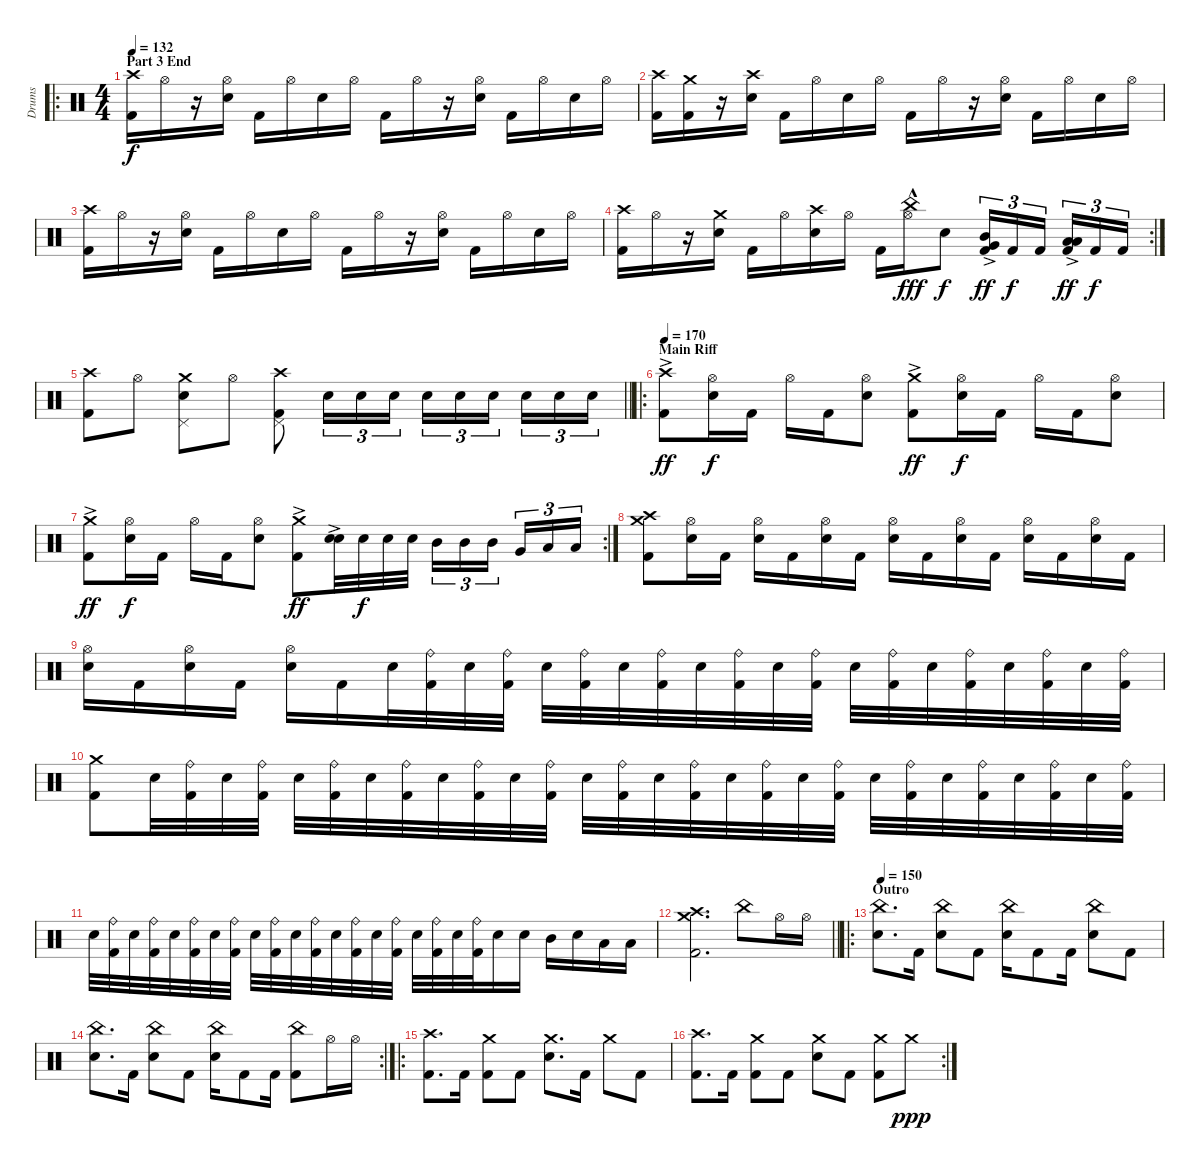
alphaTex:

\track ("Drums" "Drums") {instrument percussion}
\staff {score}
\articulation defaults
\ro
\ts (4 4)
\section ("" "Part 3 End")
\tempo 132
\clef neutral
\ks c
("Crash high (hit)" "Kick (hit) 2").16{dy f} "Hi-Hat (open)".16 r.16 ("Hi-Hat (open)" "Electric Snare (hit)").16 "Kick (hit) 2".16 "Hi-Hat (open)".16 "Electric Snare (hit)".16 "Hi-Hat (open)".16 "Kick (hit) 2".16 "Hi-Hat (open)".16 r.16 ("Hi-Hat (open)" "Electric Snare (hit)").16 "Kick (hit) 2".16 "Hi-Hat (open)".16 "Electric Snare (hit)".16 "Hi-Hat (open)".16 |
("Crash high (hit)" "Kick (hit) 2").16 ("Crash medium (hit)" "Kick (hit) 2").16 r.16 ("Crash high (hit)" "Electric Snare (hit)").16 "Kick (hit) 2".16 "Hi-Hat (open)".16 "Electric Snare (hit)".16 "Hi-Hat (open)".16 "Kick (hit) 2".16 "Hi-Hat (open)".16 r.16 ("Hi-Hat (open)" "Electric Snare (hit)").16 "Kick (hit) 2".16 "Hi-Hat (open)".16 "Electric Snare (hit)".16 "Hi-Hat (open)".16 |
("Crash high (hit)" "Kick (hit) 2").16 "Hi-Hat (open)".16 r.16 ("Hi-Hat (open)" "Electric Snare (hit)").16 "Kick (hit) 2".16 "Hi-Hat (open)".16 "Electric Snare (hit)".16 "Hi-Hat (open)".16 "Kick (hit) 2".16 "Hi-Hat (open)".16 r.16 ("Hi-Hat (open)" "Electric Snare (hit)").16 "Kick (hit) 2".16 "Hi-Hat (open)".16 "Electric Snare (hit)".16 "Hi-Hat (open)".16 |
\rc 2
("Crash high (hit)" "Kick (hit) 2").16 "Hi-Hat (open)".16 r.16 ("Crash medium (hit)" "Electric Snare (hit)").16 "Kick (hit) 2".16 "Hi-Hat (open)".16 ("Crash high (hit)" "Electric Snare (hit)").16 "Hi-Hat (open)".16 "Kick (hit) 2".16 ("China (hit)"{hac} "Hi-Hat (open)").16{dy fff} "Electric Snare (hit)".8{dy f} ("Mid Tom (hit)"{ac} "Very Low Tom (hit)"{ac} "Kick (hit) 2").16{tu (3 2) dy ff} "Kick (hit) 2".16{tu (3 2) dy f} "Kick (hit) 2".16{tu (3 2) beam splitsecondary} ("Low Tom (hit)"{ac} "Low Floor Tom (hit)"{ac} "Kick (hit) 2").16{tu (3 2) dy ff} "Kick (hit) 2".16{tu (3 2) dy f} "Kick (hit) 2".16{tu (3 2)} |
\barLineRight lightlight
("Crash high (hit)" "Kick (hit) 2").8 "Hi-Hat (open)".8 ("Crash medium (hit)" "Pedal Hi-Hat (hit)" "Electric Snare (hit)").8 "Hi-Hat (open)".8 ("Crash high (hit)" "Pedal Hi-Hat (hit)" "Kick (hit) 2").8 "Electric Snare (hit)".16{tu (3 2)} "Electric Snare (hit)".16{tu (3 2)} "Electric Snare (hit)".16{tu (3 2)} "Electric Snare (hit)".16{tu (3 2)} "Electric Snare (hit)".16{tu (3 2)} "Electric Snare (hit)".16{tu (3 2) beam splitsecondary} "Electric Snare (hit)".16{tu (3 2)} "Electric Snare (hit)".16{tu (3 2)} "Electric Snare (hit)".16{tu (3 2)} |
\ro
\section ("" "Main Riff")
\tempo 170
("Crash high (hit)"{ac} "Kick (hit) 2").8{dy ff} ("Hi-Hat (open)" "Electric Snare (hit)").16{dy f} "Kick (hit) 2".16 "Hi-Hat (open)".16 "Kick (hit) 2".16 ("Hi-Hat (open)" "Electric Snare (hit)").8 ("Crash medium (hit)"{ac} "Kick (hit) 2").8{dy ff} ("Hi-Hat (open)" "Electric Snare (hit)").16{dy f} "Kick (hit) 2".16 "Hi-Hat (open)".16 "Kick (hit) 2".16 ("Hi-Hat (open)" "Electric Snare (hit)").8 |
\rc 2
("Crash medium (hit)"{ac} "Kick (hit) 2").8{dy ff} ("Hi-Hat (open)" "Electric Snare (hit)").16{dy f} "Kick (hit) 2".16 "Hi-Hat (open)".16 "Kick (hit) 2".16 ("Hi-Hat (open)" "Electric Snare (hit)").8 ("Crash medium (hit)"{ac} "Kick (hit) 2").8{dy ff} ("Snare (hit) 2" "Electric Snare (hit)"{ac}).32 "Electric Snare (hit)".32{dy f} "Electric Snare (hit)".32 "Electric Snare (hit)".32 "Mid Tom (hit)".16{tu (3 2)} "Mid Tom (hit)".16{tu (3 2)} "Mid Tom (hit)".16{tu (3 2) beam splitsecondary} "Very Low Tom (hit)".16{tu (3 2)} "Low Floor Tom (hit)".16{tu (3 2)} "Low Floor Tom (hit)".16{tu (3 2)} |
("Crash high (hit)" "Crash medium (hit)" "Kick (hit) 2").8 ("Hi-Hat (open)" "Electric Snare (hit)").16 "Kick (hit) 2".16 ("Hi-Hat (open)" "Electric Snare (hit)").16 "Kick (hit) 2".16 ("Hi-Hat (open)" "Electric Snare (hit)").16 "Kick (hit) 2".16 ("Hi-Hat (open)" "Electric Snare (hit)").16 "Kick (hit) 2".16 ("Hi-Hat (open)" "Electric Snare (hit)").16 "Kick (hit) 2".16 ("Hi-Hat (open)" "Electric Snare (hit)").16 "Kick (hit) 2".16 ("Hi-Hat (open)" "Electric Snare (hit)").16 "Kick (hit) 2".16 |
("Hi-Hat (open)" "Electric Snare (hit)").16 "Kick (hit) 2".16 ("Hi-Hat (open)" "Electric Snare (hit)").16 "Kick (hit) 2".16 ("Hi-Hat (open)" "Electric Snare (hit)").16 "Kick (hit) 2".16 "Electric Snare (hit)".32 ("Ride (bell)" "Kick (hit) 2").32 "Electric Snare (hit)".32 ("Ride (bell)" "Kick (hit) 2").32 "Electric Snare (hit)".32 ("Ride (bell)" "Kick (hit) 2").32 "Electric Snare (hit)".32 ("Ride (bell)" "Kick (hit) 2").32 "Electric Snare (hit)".32 ("Ride (bell)" "Kick (hit) 2").32 "Electric Snare (hit)".32 ("Ride (bell)" "Kick (hit) 2").32 "Electric Snare (hit)".32 ("Ride (bell)" "Kick (hit) 2").32 "Electric Snare (hit)".32 ("Ride (bell)" "Kick (hit) 2").32 "Electric Snare (hit)".32 ("Ride (bell)" "Kick (hit) 2").32 "Electric Snare (hit)".32 ("Ride (bell)" "Kick (hit) 2").32 |
("Crash medium (hit)" "Kick (hit) 2").8 "Electric Snare (hit)".32 ("Ride (bell)" "Kick (hit) 2").32 "Electric Snare (hit)".32 ("Ride (bell)" "Kick (hit) 2").32 "Electric Snare (hit)".32 ("Ride (bell)" "Kick (hit) 2").32 "Electric Snare (hit)".32 ("Ride (bell)" "Kick (hit) 2").32 "Electric Snare (hit)".32 ("Ride (bell)" "Kick (hit) 2").32 "Electric Snare (hit)".32 ("Ride (bell)" "Kick (hit) 2").32 "Electric Snare (hit)".32 ("Ride (bell)" "Kick (hit) 2").32 "Electric Snare (hit)".32 ("Ride (bell)" "Kick (hit) 2").32 "Electric Snare (hit)".32 ("Ride (bell)" "Kick (hit) 2").32 "Electric Snare (hit)".32 ("Ride (bell)" "Kick (hit) 2").32 "Electric Snare (hit)".32 ("Ride (bell)" "Kick (hit) 2").32 "Electric Snare (hit)".32 ("Ride (bell)" "Kick (hit) 2").32 "Electric Snare (hit)".32 ("Ride (bell)" "Kick (hit) 2").32 "Electric Snare (hit)".32 ("Ride (bell)" "Kick (hit) 2").32 |
"Electric Snare (hit)".32 ("Ride (bell)" "Kick (hit) 2").32 "Electric Snare (hit)".32 ("Ride (bell)" "Kick (hit) 2").32 "Electric Snare (hit)".32 ("Ride (bell)" "Kick (hit) 2").32 "Electric Snare (hit)".32 ("Ride (bell)" "Kick (hit) 2").32 "Electric Snare (hit)".32 ("Ride (bell)" "Kick (hit) 2").32 "Electric Snare (hit)".32 ("Ride (bell)" "Kick (hit) 2").32 "Electric Snare (hit)".32 ("Ride (bell)" "Kick (hit) 2").32 "Electric Snare (hit)".32 ("Ride (bell)" "Kick (hit) 2").32 "Electric Snare (hit)".32 ("Ride (bell)" "Kick (hit) 2").32 "Electric Snare (hit)".32 ("Ride (bell)" "Kick (hit) 2").32 "Electric Snare (hit)".16 "Electric Snare (hit)".16 "Mid Tom (hit)".16 "Electric Snare (hit)".16 "Low Tom (hit)".16 "Low Floor Tom (hit)".16 |
\barLineRight lightlight
("Crash high (hit)" "Crash medium (hit)" "Kick (hit) 2").2{d} "China (hit)".8 "Hi-Hat (open)".16 "Hi-Hat (open)".16 |
\ro
\section ("" "Outro")
\tempo 150
("China (hit)" "Electric Snare (hit)").8{d} "Kick (hit) 2".16 ("China (hit)" "Electric Snare (hit)").8 "Kick (hit) 2".8 ("China (hit)" "Electric Snare (hit)").16 "Kick (hit) 2".8 "Kick (hit) 2".16 ("China (hit)" "Electric Snare (hit)").8 "Kick (hit) 2".8 |
\rc 2
("China (hit)" "Electric Snare (hit)").8{d} "Kick (hit) 2".16 ("China (hit)" "Electric Snare (hit)").8 "Kick (hit) 2".8 ("China (hit)" "Electric Snare (hit)").16 "Kick (hit) 2".8 "Kick (hit) 2".16 ("China (hit)" "Kick (hit) 2").8 "Hi-Hat (open)".16 "Hi-Hat (open)".16 |
\ro
("Crash high (hit)" "Kick (hit) 2").8{d} "Kick (hit) 2".16 ("Crash medium (hit)" "Kick (hit) 2").8 "Kick (hit) 2".8 ("Crash medium (hit)" "Electric Snare (hit)").8{d} "Kick (hit) 2".16 "Crash medium (hit)".8 "Kick (hit) 2".8 |
\rc 2
("Crash high (hit)" "Kick (hit) 2").8{d} "Kick (hit) 2".16 ("Crash medium (hit)" "Kick (hit) 2").8 "Kick (hit) 2".8 ("Crash medium (hit)" "Electric Snare (hit)").8 "Kick (hit) 2".8 ("Crash medium (hit)" "Kick (hit) 2").8 "Crash medium (hit)".8{dy ppp}
